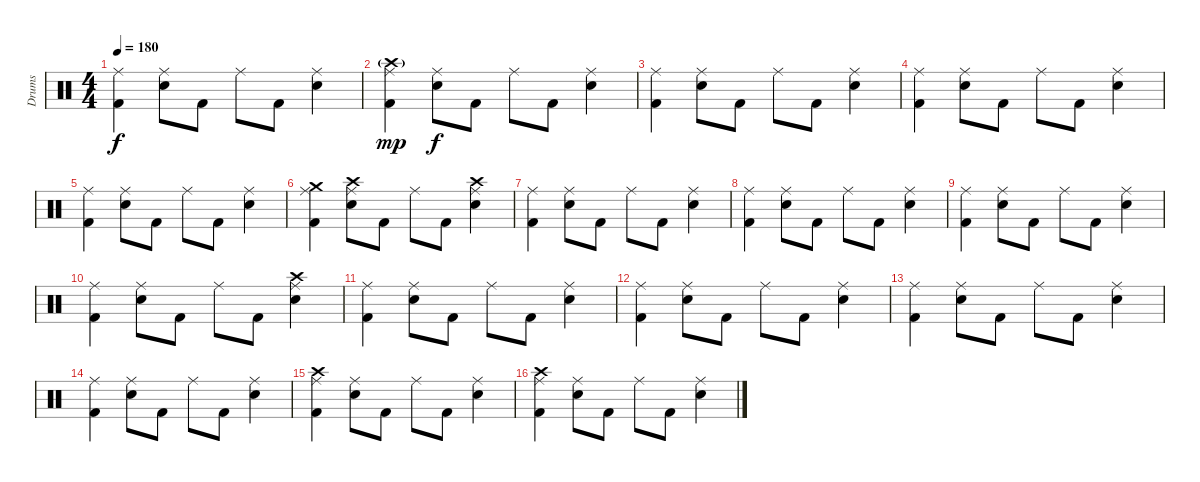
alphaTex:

\track ("Drums" "Drums") {instrument percussion}
\staff {score}
\articulation defaults
\ts (4 4)
\tempo 180
\clef neutral
\ks c
("Ride (middle)" "Kick (hit) 2").4{dy f} ("Ride (middle)" "Electric Snare (hit)").8 "Kick (hit) 2".8 "Ride (middle)".8 "Kick (hit) 2".8 ("Ride (middle)" "Electric Snare (hit)").4 |
("Ride (middle)" "Crash high (hit)"{g} "Kick (hit) 2").4{dy mp} ("Ride (middle)" "Electric Snare (hit)").8{dy f} "Kick (hit) 2".8 "Ride (middle)".8 "Kick (hit) 2".8 ("Ride (middle)" "Electric Snare (hit)").4 |
("Ride (middle)" "Kick (hit) 2").4 ("Ride (middle)" "Electric Snare (hit)").8 "Kick (hit) 2".8 "Ride (middle)".8 "Kick (hit) 2".8 ("Ride (middle)" "Electric Snare (hit)").4 |
("Ride (middle)" "Kick (hit) 2").4 ("Ride (middle)" "Electric Snare (hit)").8 "Kick (hit) 2".8 "Ride (middle)".8 "Kick (hit) 2".8 ("Ride (middle)" "Electric Snare (hit)").4 |
("Ride (middle)" "Kick (hit) 2").4 ("Ride (middle)" "Electric Snare (hit)").8 "Kick (hit) 2".8 "Ride (middle)".8 "Kick (hit) 2".8 ("Ride (middle)" "Electric Snare (hit)").4 |
("Ride (middle)" "Crash medium (hit)" "Kick (hit) 2").4 ("Ride (middle)" "Crash high (hit)" "Electric Snare (hit)").8 "Kick (hit) 2".8 "Ride (middle)".8 "Kick (hit) 2".8 ("Ride (middle)" "Crash high (hit)" "Electric Snare (hit)").4 |
("Ride (middle)" "Kick (hit) 2").4 ("Ride (middle)" "Electric Snare (hit)").8 "Kick (hit) 2".8 "Ride (middle)".8 "Kick (hit) 2".8 ("Ride (middle)" "Electric Snare (hit)").4 |
("Ride (middle)" "Kick (hit) 2").4 ("Ride (middle)" "Electric Snare (hit)").8 "Kick (hit) 2".8 "Ride (middle)".8 "Kick (hit) 2".8 ("Ride (middle)" "Electric Snare (hit)").4 |
("Ride (middle)" "Kick (hit) 2").4 ("Ride (middle)" "Electric Snare (hit)").8 "Kick (hit) 2".8 "Ride (middle)".8 "Kick (hit) 2".8 ("Ride (middle)" "Electric Snare (hit)").4 |
("Ride (middle)" "Kick (hit) 2").4 ("Ride (middle)" "Electric Snare (hit)").8 "Kick (hit) 2".8 "Ride (middle)".8 "Kick (hit) 2".8 ("Ride (middle)" "Crash high (hit)" "Electric Snare (hit)").4 |
("Ride (middle)" "Kick (hit) 2").4 ("Ride (middle)" "Electric Snare (hit)").8 "Kick (hit) 2".8 "Ride (middle)".8 "Kick (hit) 2".8 ("Ride (middle)" "Electric Snare (hit)").4 |
("Ride (middle)" "Kick (hit) 2").4 ("Ride (middle)" "Electric Snare (hit)").8 "Kick (hit) 2".8 "Ride (middle)".8 "Kick (hit) 2".8 ("Ride (middle)" "Electric Snare (hit)").4 |
("Ride (middle)" "Kick (hit) 2").4 ("Ride (middle)" "Electric Snare (hit)").8 "Kick (hit) 2".8 "Ride (middle)".8 "Kick (hit) 2".8 ("Ride (middle)" "Electric Snare (hit)").4 |
("Ride (middle)" "Kick (hit) 2").4 ("Ride (middle)" "Electric Snare (hit)").8 "Kick (hit) 2".8 "Ride (middle)".8 "Kick (hit) 2".8 ("Ride (middle)" "Electric Snare (hit)").4 |
("Ride (middle)" "Crash high (hit)" "Kick (hit) 2").4 ("Ride (middle)" "Electric Snare (hit)").8 "Kick (hit) 2".8 "Ride (middle)".8 "Kick (hit) 2".8 ("Ride (middle)" "Electric Snare (hit)").4 |
("Ride (middle)" "Crash high (hit)" "Kick (hit) 2").4 ("Ride (middle)" "Electric Snare (hit)").8 "Kick (hit) 2".8 "Ride (middle)".8 "Kick (hit) 2".8 ("Ride (middle)" "Electric Snare (hit)").4
